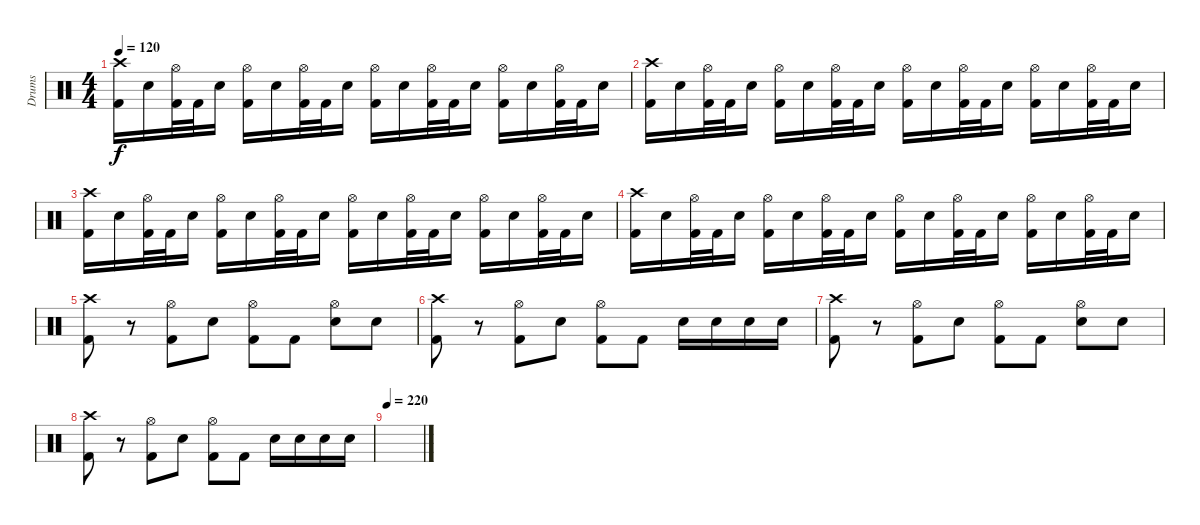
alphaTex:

\track ("Drums" "Drums") {instrument percussion}
\staff {score}
\articulation defaults
\ts (4 4)
\tempo 120
\clef neutral
\ks c
("Crash high (hit)" "Kick (hit) 2").16{dy f} "Electric Snare (hit)".16 ("Hi-Hat (open)" "Kick (hit) 2").32 "Kick (hit) 2".32 "Electric Snare (hit)".16 ("Hi-Hat (open)" "Kick (hit) 2").16 "Electric Snare (hit)".16 ("Hi-Hat (open)" "Kick (hit) 2").32 "Kick (hit) 2".32 "Electric Snare (hit)".16 ("Hi-Hat (open)" "Kick (hit) 2").16 "Electric Snare (hit)".16 ("Hi-Hat (open)" "Kick (hit) 2").32 "Kick (hit) 2".32 "Electric Snare (hit)".16 ("Hi-Hat (open)" "Kick (hit) 2").16 "Electric Snare (hit)".16 ("Hi-Hat (open)" "Kick (hit) 2").32 "Kick (hit) 2".32 "Electric Snare (hit)".16 |
("Crash high (hit)" "Kick (hit) 2").16 "Electric Snare (hit)".16 ("Hi-Hat (open)" "Kick (hit) 2").32 "Kick (hit) 2".32 "Electric Snare (hit)".16 ("Hi-Hat (open)" "Kick (hit) 2").16 "Electric Snare (hit)".16 ("Hi-Hat (open)" "Kick (hit) 2").32 "Kick (hit) 2".32 "Electric Snare (hit)".16 ("Hi-Hat (open)" "Kick (hit) 2").16 "Electric Snare (hit)".16 ("Hi-Hat (open)" "Kick (hit) 2").32 "Kick (hit) 2".32 "Electric Snare (hit)".16 ("Hi-Hat (open)" "Kick (hit) 2").16 "Electric Snare (hit)".16 ("Hi-Hat (open)" "Kick (hit) 2").32 "Kick (hit) 2".32 "Electric Snare (hit)".16 |
("Crash high (hit)" "Kick (hit) 2").16 "Electric Snare (hit)".16 ("Hi-Hat (open)" "Kick (hit) 2").32 "Kick (hit) 2".32 "Electric Snare (hit)".16 ("Hi-Hat (open)" "Kick (hit) 2").16 "Electric Snare (hit)".16 ("Hi-Hat (open)" "Kick (hit) 2").32 "Kick (hit) 2".32 "Electric Snare (hit)".16 ("Hi-Hat (open)" "Kick (hit) 2").16 "Electric Snare (hit)".16 ("Hi-Hat (open)" "Kick (hit) 2").32 "Kick (hit) 2".32 "Electric Snare (hit)".16 ("Hi-Hat (open)" "Kick (hit) 2").16 "Electric Snare (hit)".16 ("Hi-Hat (open)" "Kick (hit) 2").32 "Kick (hit) 2".32 "Electric Snare (hit)".16 |
("Crash high (hit)" "Kick (hit) 2").16 "Electric Snare (hit)".16 ("Hi-Hat (open)" "Kick (hit) 2").32 "Kick (hit) 2".32 "Electric Snare (hit)".16 ("Hi-Hat (open)" "Kick (hit) 2").16 "Electric Snare (hit)".16 ("Hi-Hat (open)" "Kick (hit) 2").32 "Kick (hit) 2".32 "Electric Snare (hit)".16 ("Hi-Hat (open)" "Kick (hit) 2").16 "Electric Snare (hit)".16 ("Hi-Hat (open)" "Kick (hit) 2").32 "Kick (hit) 2".32 "Electric Snare (hit)".16 ("Hi-Hat (open)" "Kick (hit) 2").16 "Electric Snare (hit)".16 ("Hi-Hat (open)" "Kick (hit) 2").32 "Kick (hit) 2".32 "Electric Snare (hit)".16 |
("Crash high (hit)" "Kick (hit) 2").8 r.8 ("Hi-Hat (open)" "Kick (hit) 2").8 "Electric Snare (hit)".8 ("Hi-Hat (open)" "Kick (hit) 2").8 "Kick (hit) 2".8 ("Hi-Hat (open)" "Electric Snare (hit)").8 "Electric Snare (hit)".8 |
("Crash high (hit)" "Kick (hit) 2").8 r.8 ("Hi-Hat (open)" "Kick (hit) 2").8 "Electric Snare (hit)".8 ("Hi-Hat (open)" "Kick (hit) 2").8 "Kick (hit) 2".8 "Electric Snare (hit)".16 "Electric Snare (hit)".16 "Electric Snare (hit)".16 "Electric Snare (hit)".16 |
("Crash high (hit)" "Kick (hit) 2").8 r.8 ("Hi-Hat (open)" "Kick (hit) 2").8 "Electric Snare (hit)".8 ("Hi-Hat (open)" "Kick (hit) 2").8 "Kick (hit) 2".8 ("Hi-Hat (open)" "Electric Snare (hit)").8 "Electric Snare (hit)".8 |
("Crash high (hit)" "Kick (hit) 2").8 r.8 ("Hi-Hat (open)" "Kick (hit) 2").8 "Electric Snare (hit)".8 ("Hi-Hat (open)" "Kick (hit) 2").8 "Kick (hit) 2".8 "Electric Snare (hit)".16 "Electric Snare (hit)".16 "Electric Snare (hit)".16 "Electric Snare (hit)".16 |
\tempo 220
